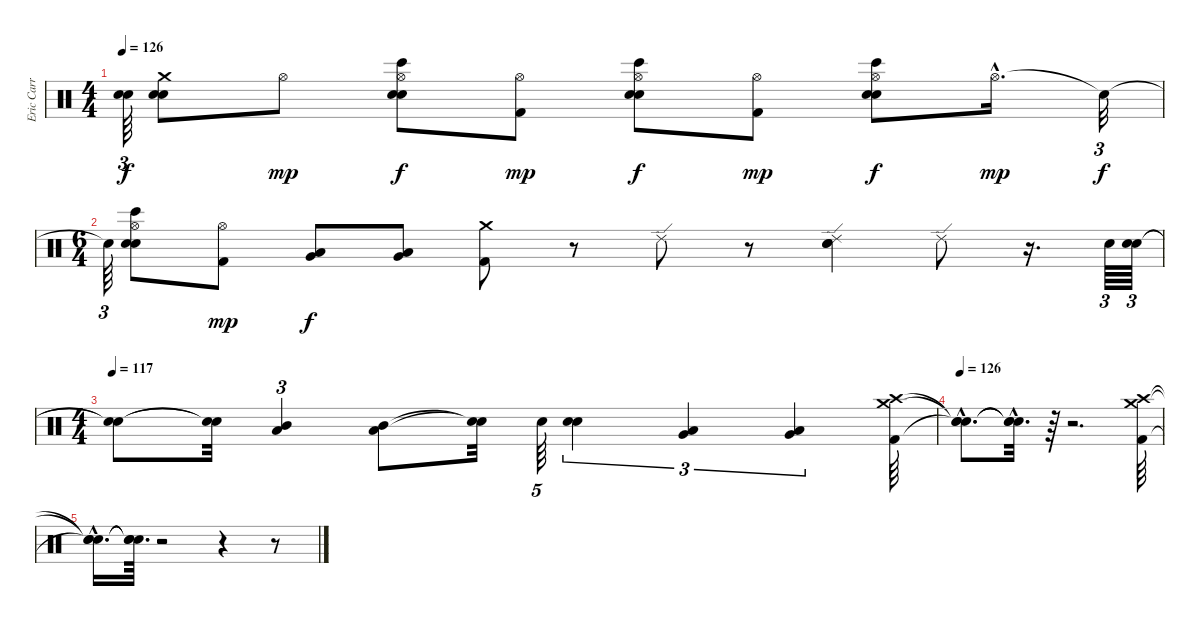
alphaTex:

\track ("Eric Carr" "Eric Carr") {instrument percussion}
\staff {score}
\articulation defaults
\ts (4 4)
\tempo 126
\clef neutral
\ks c
("Snare (hit)"{t} "Snare (hit)"{t}).64{tu (3 2) dy f} ("Crash medium (hit)" "Snare (hit) 2" "Electric Snare (hit)").8 "Hi-Hat (open)".8{dy mp} ("Hi-Hat (open)" "Bongo High (hit)" "Electric Snare (hit)" "Snare (hit) 2").8{dy f} ("Hi-Hat (open)" "Kick (hit) 2").8{dy mp} ("Hi-Hat (open)" "Bongo High (hit)" "Electric Snare (hit)" "Snare (hit) 2").8{dy f} ("Hi-Hat (open)" "Kick (hit) 2").8{dy mp} ("Hi-Hat (open)" "Bongo High (hit)" "Electric Snare (hit)" "Snare (hit) 2").8{dy f} "Hi-Hat (open)"{hac}.16{d dy mp} "Snare (hit)"{t}.32{tu (3 2) dy f} |
\ts (6 4)
"Snare (hit)"{t}.64{tu (3 2)} ("Bongo High (hit)" "Hi-Hat (open)" "Electric Snare (hit)" "Snare (hit) 2").8 ("Hi-Hat (open)" "Kick (hit) 2").8{dy mp} ("Very Low Tom (hit)" "Low Tom (hit)").8{dy f} ("Low Tom (hit)" "Very Low Tom (hit)").8 ("Crash medium (hit)" "Kick (hit) 2").8 r.8 "Ride (edge) 2".8 r.8 ("Ride (edge) 2" "Snare (hit) 2" "Electric Snare (hit)").4 "Ride (edge) 2".8 r.16{d} "Snare (hit) 2".64{tu (3 2)} ("Snare (hit) 2" "Electric Snare (hit)").64{tu (3 2)} |
\ts (4 4)
\tempo 117
("Snare (hit)"{t} "Snare (hit)"{t}).8 ("Snare (hit)"{t} "Snare (hit)"{t}).32 ("Mid Tom (hit)" "Low Tom (hit)").4{tu (3 2)} ("Mid Tom (hit)" "Low Tom (hit)").8 ("Snare (hit)"{t} "Snare (hit)"{t}).32 "Snare (hit) 2".64{tu (5 4)} ("Snare (hit) 2" "Electric Snare (hit)").4{tu (3 2)} ("Low Tom (hit)" "Very Low Tom (hit)").4{tu (3 2)} ("Low Tom (hit)" "Very Low Tom (hit)").4{tu (3 2)} ("Crash high (hit)" "Crash medium (hit)" "Kick (hit) 2").64 |
\tempo 126
("Snare (hit)"{hac t} "Snare (hit)"{hac t} "Snare (hit)"{hac t}).8{d} ("Snare (hit)"{hac t} "Snare (hit)"{hac t} "Snare (hit)"{hac t}).32{d} r.64 r.2{d} ("Crash medium (hit)" "Crash high (hit)" "Kick (hit) 2").64 |
("Snare (hit)"{hac t} "Snare (hit)"{hac t} "Snare (hit)"{hac t}).16{d} ("Snare (hit)"{t} "Snare (hit)"{t} "Snare (hit)"{t}).64{d} r.2 r.4 r.8
